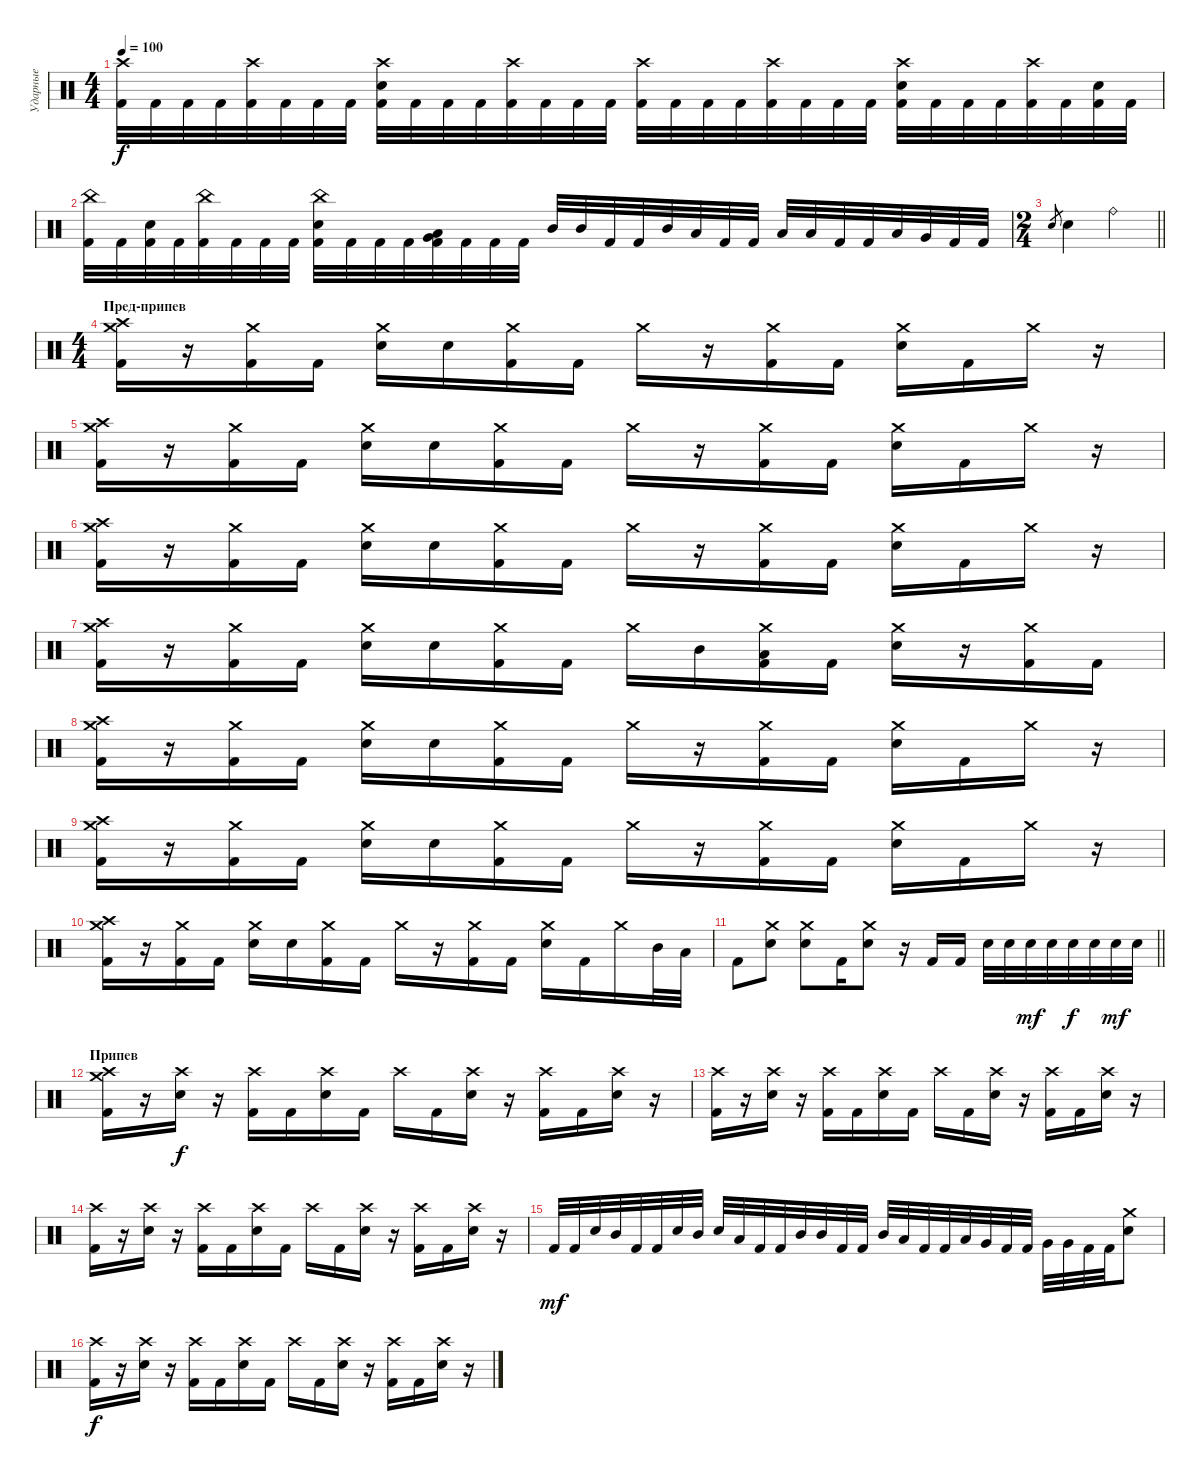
\track ("Ударные" "Ударные") {instrument percussion}
\staff {score}
\articulation defaults
\ts (4 4)
\tempo 100
\clef neutral
\ks c
("Crash high (hit)" "Kick (hit) 2").32{dy f} "Kick (hit) 2".32 "Kick (hit) 2".32 "Kick (hit) 2".32 ("Crash high (hit)" "Kick (hit) 2").32 "Kick (hit) 2".32 "Kick (hit) 2".32 "Kick (hit) 2".32 ("Crash high (hit)" "Electric Snare (hit)" "Kick (hit) 2").32 "Kick (hit) 2".32 "Kick (hit) 2".32 "Kick (hit) 2".32 ("Crash high (hit)" "Kick (hit) 2").32 "Kick (hit) 2".32 "Kick (hit) 2".32 "Kick (hit) 2".32 ("Crash high (hit)" "Kick (hit) 2").32 "Kick (hit) 2".32 "Kick (hit) 2".32 "Kick (hit) 2".32 ("Crash high (hit)" "Kick (hit) 2").32 "Kick (hit) 2".32 "Kick (hit) 2".32 "Kick (hit) 2".32 ("Crash high (hit)" "Electric Snare (hit)" "Kick (hit) 2").32 "Kick (hit) 2".32 "Kick (hit) 2".32 "Kick (hit) 2".32 ("Crash high (hit)" "Kick (hit) 2").32 "Kick (hit) 2".32 ("Electric Snare (hit)" "Kick (hit) 2").32 "Kick (hit) 2".32 |
("China (hit)" "Kick (hit) 2").32 "Kick (hit) 2".32 ("Electric Snare (hit)" "Kick (hit) 2").32 "Kick (hit) 2".32 ("China (hit)" "Kick (hit) 2").32 "Kick (hit) 2".32 "Kick (hit) 2".32 "Kick (hit) 2".32 ("China (hit)" "Electric Snare (hit)" "Kick (hit) 2").32 "Kick (hit) 2".32 "Kick (hit) 2".32 "Kick (hit) 2".32 ("Low Tom (hit)" "Very Low Tom (hit)" "Kick (hit) 2").32 "Kick (hit) 2".32 "Kick (hit) 2".32 "Kick (hit) 2".32 "Mid Tom (hit)".32 "Mid Tom (hit)".32 "Kick (hit) 2".32 "Kick (hit) 2".32 "Mid Tom (hit)".32 "Low Tom (hit)".32 "Kick (hit) 2".32 "Kick (hit) 2".32 "Low Tom (hit)".32 "Low Tom (hit)".32 "Kick (hit) 2".32 "Kick (hit) 2".32 "Low Tom (hit)".32 "Very Low Tom (hit)".32 "Kick (hit) 2".32 "Kick (hit) 2".32 |
\ts (2 4)
\barLineRight lightlight "Electric Snare (hit)".8{gr} "Electric Snare (hit)".4 "Ride (bell)".4
|
\ts (4 4)
\section ("" "Пред-припев")
("Crash high (hit)" "Crash medium (hit)" "Kick (hit) 2").16 r.16 ("Crash medium (hit)" "Kick (hit) 2").16 "Kick (hit) 2".16 ("Crash medium (hit)" "Electric Snare (hit)").16 "Electric Snare (hit)".16 ("Crash medium (hit)" "Kick (hit) 2").16 "Kick (hit) 2".16 "Crash medium (hit)".16 r.16 ("Crash medium (hit)" "Kick (hit) 2").16 "Kick (hit) 2".16 ("Crash medium (hit)" "Electric Snare (hit)").16 "Kick (hit) 2".16 "Crash medium (hit)".16 r.16 |
("Crash high (hit)" "Crash medium (hit)" "Kick (hit) 2").16 r.16 ("Crash medium (hit)" "Kick (hit) 2").16 "Kick (hit) 2".16 ("Crash medium (hit)" "Electric Snare (hit)").16 "Electric Snare (hit)".16 ("Crash medium (hit)" "Kick (hit) 2").16 "Kick (hit) 2".16 "Crash medium (hit)".16 r.16 ("Crash medium (hit)" "Kick (hit) 2").16 "Kick (hit) 2".16 ("Crash medium (hit)" "Electric Snare (hit)").16 "Kick (hit) 2".16 "Crash medium (hit)".16 r.16 |
("Crash high (hit)" "Crash medium (hit)" "Kick (hit) 2").16 r.16 ("Crash medium (hit)" "Kick (hit) 2").16 "Kick (hit) 2".16 ("Crash medium (hit)" "Electric Snare (hit)").16 "Electric Snare (hit)".16 ("Crash medium (hit)" "Kick (hit) 2").16 "Kick (hit) 2".16 "Crash medium (hit)".16 r.16 ("Crash medium (hit)" "Kick (hit) 2").16 "Kick (hit) 2".16 ("Crash medium (hit)" "Electric Snare (hit)").16 "Kick (hit) 2".16 "Crash medium (hit)".16 r.16 |
("Crash high (hit)" "Crash medium (hit)" "Kick (hit) 2").16 r.16 ("Crash medium (hit)" "Kick (hit) 2").16 "Kick (hit) 2".16 ("Crash medium (hit)" "Electric Snare (hit)").16 "Electric Snare (hit)".16 ("Crash medium (hit)" "Kick (hit) 2").16 "Kick (hit) 2".16 "Crash medium (hit)".16 "Mid Tom (hit)".16 ("Crash medium (hit)" "Low Tom (hit)" "Kick (hit) 2").16 "Kick (hit) 2".16 ("Crash medium (hit)" "Electric Snare (hit)").16 r.16 ("Crash medium (hit)" "Kick (hit) 2").16 "Kick (hit) 2".16 |
("Crash high (hit)" "Crash medium (hit)" "Kick (hit) 2").16 r.16 ("Crash medium (hit)" "Kick (hit) 2").16 "Kick (hit) 2".16 ("Crash medium (hit)" "Electric Snare (hit)").16 "Electric Snare (hit)".16 ("Crash medium (hit)" "Kick (hit) 2").16 "Kick (hit) 2".16 "Crash medium (hit)".16 r.16 ("Crash medium (hit)" "Kick (hit) 2").16 "Kick (hit) 2".16 ("Crash medium (hit)" "Electric Snare (hit)").16 "Kick (hit) 2".16 "Crash medium (hit)".16 r.16 |
("Crash high (hit)" "Crash medium (hit)" "Kick (hit) 2").16 r.16 ("Crash medium (hit)" "Kick (hit) 2").16 "Kick (hit) 2".16 ("Crash medium (hit)" "Electric Snare (hit)").16 "Electric Snare (hit)".16 ("Crash medium (hit)" "Kick (hit) 2").16 "Kick (hit) 2".16 "Crash medium (hit)".16 r.16 ("Crash medium (hit)" "Kick (hit) 2").16 "Kick (hit) 2".16 ("Crash medium (hit)" "Electric Snare (hit)").16 "Kick (hit) 2".16 "Crash medium (hit)".16 r.16 |
("Crash high (hit)" "Crash medium (hit)" "Kick (hit) 2").16 r.16 ("Crash medium (hit)" "Kick (hit) 2").16 "Kick (hit) 2".16 ("Crash medium (hit)" "Electric Snare (hit)").16 "Electric Snare (hit)".16 ("Crash medium (hit)" "Kick (hit) 2").16 "Kick (hit) 2".16 "Crash medium (hit)".16 r.16 ("Crash medium (hit)" "Kick (hit) 2").16 "Kick (hit) 2".16 ("Crash medium (hit)" "Electric Snare (hit)").16 "Kick (hit) 2".16 "Crash medium (hit)".16 "Mid Tom (hit)".32 "Low Tom (hit)".32 |
\barLineRight lightlight "Kick (hit) 2".8
("Crash medium (hit)" "Electric Snare (hit)").8 ("Crash medium (hit)" "Electric Snare (hit)").8 "Kick (hit) 2".16 ("Crash medium (hit)" "Electric Snare (hit)").8 r.16 "Kick (hit) 2".16 "Kick (hit) 2".16 "Electric Snare (hit)".32 "Electric Snare (hit)".32 "Electric Snare (hit)".32{dy mf} "Electric Snare (hit)".32 "Electric Snare (hit)".32{dy f} "Electric Snare (hit)".32 "Electric Snare (hit)".32{dy mf} "Electric Snare (hit)".32 |
\section ("" "Припев ")
("Crash high (hit)" "Crash medium (hit)" "Kick (hit) 2").16 r.16 ("Crash high (hit)" "Electric Snare (hit)").16{dy f} r.16 ("Crash high (hit)" "Kick (hit) 2").16 "Kick (hit) 2".16 ("Crash high (hit)" "Electric Snare (hit)").16 "Kick (hit) 2".16 "Crash high (hit)".16 "Kick (hit) 2".16 ("Crash high (hit)" "Electric Snare (hit)").16 r.16 ("Crash high (hit)" "Kick (hit) 2").16 "Kick (hit) 2".16 ("Crash high (hit)" "Electric Snare (hit)").16 r.16 |
("Crash high (hit)" "Kick (hit) 2").16 r.16 ("Crash high (hit)" "Electric Snare (hit)").16 r.16 ("Crash high (hit)" "Kick (hit) 2").16 "Kick (hit) 2".16 ("Crash high (hit)" "Electric Snare (hit)").16 "Kick (hit) 2".16 "Crash high (hit)".16 "Kick (hit) 2".16 ("Crash high (hit)" "Electric Snare (hit)").16 r.16 ("Crash high (hit)" "Kick (hit) 2").16 "Kick (hit) 2".16 ("Crash high (hit)" "Electric Snare (hit)").16 r.16 |
("Crash high (hit)" "Kick (hit) 2").16 r.16 ("Crash high (hit)" "Electric Snare (hit)").16 r.16 ("Crash high (hit)" "Kick (hit) 2").16 "Kick (hit) 2".16 ("Crash high (hit)" "Electric Snare (hit)").16 "Kick (hit) 2".16 "Crash high (hit)".16 "Kick (hit) 2".16 ("Crash high (hit)" "Electric Snare (hit)").16 r.16 ("Crash high (hit)" "Kick (hit) 2").16 "Kick (hit) 2".16 ("Crash high (hit)" "Electric Snare (hit)").16 r.16 |
"Kick (hit) 2".32{dy mf} "Kick (hit) 2".32 "Electric Snare (hit)".32 "Mid Tom (hit)".32 "Kick (hit) 2".32 "Kick (hit) 2".32 "Electric Snare (hit)".32 "Mid Tom (hit)".32 "Electric Snare (hit)".32 "Low Tom (hit)".32 "Kick (hit) 2".32 "Kick (hit) 2".32 "Mid Tom (hit)".32 "Mid Tom (hit)".32 "Kick (hit) 2".32 "Kick (hit) 2".32 "Mid Tom (hit)".32 "Low Tom (hit)".32 "Kick (hit) 2".32 "Kick (hit) 2".32 "Low Tom (hit)".32 "Very Low Tom (hit)".32 "Kick (hit) 2".32 "Kick (hit) 2".32 "Very Low Tom (hit)".32 "Very Low Tom (hit)".32 "Kick (hit) 2".32 "Kick (hit) 2".32 ("Crash medium (hit)" "Electric Snare (hit)").8 |
("Crash high (hit)" "Kick (hit) 2").16{dy f} r.16 ("Crash high (hit)" "Electric Snare (hit)").16 r.16 ("Crash high (hit)" "Kick (hit) 2").16 "Kick (hit) 2".16 ("Crash high (hit)" "Electric Snare (hit)").16 "Kick (hit) 2".16 "Crash high (hit)".16 "Kick (hit) 2".16 ("Crash high (hit)" "Electric Snare (hit)").16 r.16 ("Crash high (hit)" "Kick (hit) 2").16 "Kick (hit) 2".16 ("Crash high (hit)" "Electric Snare (hit)").16 r.16
